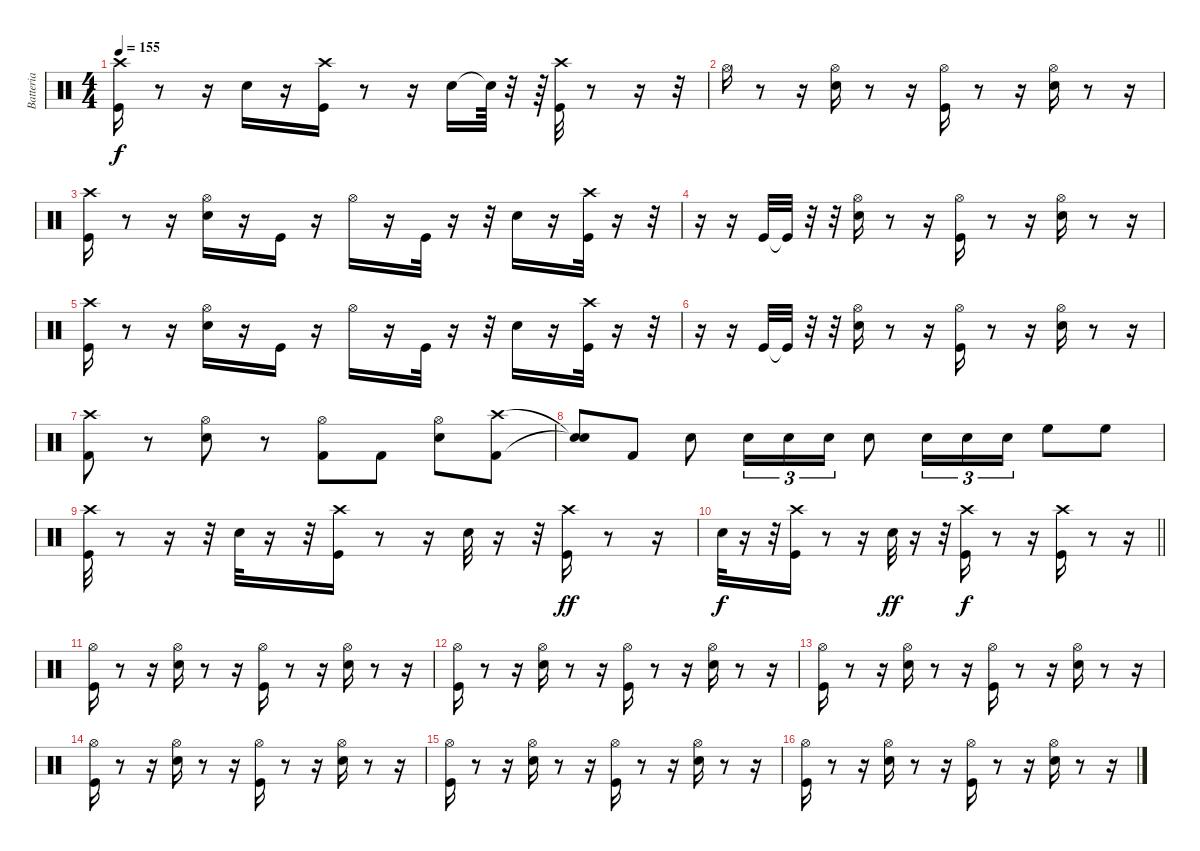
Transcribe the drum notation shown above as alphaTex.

\track ("Batteria" "Batteria") {instrument percussion bank 20}
\staff {score}
\articulation defaults
\ts (4 4)
\tempo 155
\clef neutral
\ks c
("Kick (hit)" "Crash high (hit)").16{dy f} r.8 r.16 "Snare (hit) 2".16 r.16 ("Kick (hit)" "Crash high (hit)").16 r.8 r.16 "Snare (hit) 2".16 "Snare (hit)"{t}.64 r.32 r.64 ("Kick (hit)" "Crash high (hit)").32 r.8 r.16 r.32 |
"Hi-Hat (open)".16 r.8 r.16 ("Hi-Hat (open)" "Snare (hit) 2").16 r.8 r.16 ("Hi-Hat (open)" "Kick (hit)").16 r.8 r.16 ("Hi-Hat (open)" "Snare (hit) 2").16 r.8 r.16 |
("Kick (hit)" "Crash high (hit)").16 r.8 r.16 ("Hi-Hat (open)" "Snare (hit) 2").16 r.16 "Kick (hit)".16 r.16 "Hi-Hat (open)".16 r.16 "Kick (hit)".32 r.16 r.32 "Snare (hit) 2".16 r.16 ("Kick (hit)" "Crash high (hit)").32 r.16 r.32 |
r.16 r.16 "Kick (hit)".32 "Kick (hit)"{t}.32 r.32 r.32 ("Hi-Hat (open)" "Snare (hit) 2").16 r.8 r.16 ("Hi-Hat (open)" "Kick (hit)").16 r.8 r.16 ("Hi-Hat (open)" "Snare (hit) 2").16 r.8 r.16 |
("Kick (hit)" "Crash high (hit)").16 r.8 r.16 ("Hi-Hat (open)" "Snare (hit) 2").16 r.16 "Kick (hit)".16 r.16 "Hi-Hat (open)".16 r.16 "Kick (hit)".32 r.16 r.32 "Snare (hit) 2".16 r.16 ("Kick (hit)" "Crash high (hit)").32 r.16 r.32 |
r.16 r.16 "Kick (hit)".32 "Kick (hit)"{t}.32 r.32 r.32 ("Hi-Hat (open)" "Snare (hit) 2").16 r.8 r.16 ("Hi-Hat (open)" "Kick (hit)").16 r.8 r.16 ("Hi-Hat (open)" "Snare (hit) 2").16 r.8 r.16 |
("Crash high (hit)" "Kick (hit) 2").8 r.8 ("Hi-Hat (open)" "Snare (hit) 2").8 r.8 ("Hi-Hat (open)" "Kick (hit) 2").8 "Kick (hit) 2".8 ("Hi-Hat (open)" "Snare (hit) 2").8 ("Crash high (hit)" "Kick (hit) 2").8 |
("Snare (hit)"{t} "Snare (hit)"{t}).8 "Kick (hit) 2".8 "Snare (hit) 2".8 "Snare (hit) 2".16{tu (3 2)} "Snare (hit) 2".16{tu (3 2)} "Snare (hit) 2".16{tu (3 2)} "Snare (hit) 2".8 "Snare (hit) 2".16{tu (3 2)} "Snare (hit) 2".16{tu (3 2)} "Snare (hit) 2".16{tu (3 2)} "High Floor Tom (hit)".8 "High Floor Tom (hit)".8 |
("Kick (hit)" "Crash high (hit)").32 r.8 r.16 r.32 "Snare (hit) 2".32 r.16 r.32 ("Kick (hit)" "Crash high (hit)").16 r.8 r.16 "Snare (hit) 2".32 r.16 r.32 ("Kick (hit)" "Crash high (hit)").16{dy ff} r.8 r.16 |
\barLineRight lightlight "Snare (hit) 2".32{dy f}
r.16 r.32 ("Kick (hit)" "Crash high (hit)").16 r.8 r.16 "Snare (hit) 2".32{dy ff} r.16 r.32 ("Kick (hit)" "Crash high (hit)").16{dy f} r.8 r.16 ("Kick (hit)" "Crash high (hit)").16 r.8 r.16 |
("Hi-Hat (open)" "Kick (hit)").16 r.8 r.16 ("Hi-Hat (open)" "Snare (hit) 2").16 r.8 r.16 ("Kick (hit)" "Hi-Hat (open)").16 r.8 r.16 ("Snare (hit) 2" "Hi-Hat (open)").16 r.8 r.16 |
("Hi-Hat (open)" "Kick (hit)").16 r.8 r.16 ("Hi-Hat (open)" "Snare (hit) 2").16 r.8 r.16 ("Kick (hit)" "Hi-Hat (open)").16 r.8 r.16 ("Snare (hit) 2" "Hi-Hat (open)").16 r.8 r.16 |
("Hi-Hat (open)" "Kick (hit)").16 r.8 r.16 ("Hi-Hat (open)" "Snare (hit) 2").16 r.8 r.16 ("Kick (hit)" "Hi-Hat (open)").16 r.8 r.16 ("Snare (hit) 2" "Hi-Hat (open)").16 r.8 r.16 |
("Hi-Hat (open)" "Kick (hit)").16 r.8 r.16 ("Hi-Hat (open)" "Snare (hit) 2").16 r.8 r.16 ("Kick (hit)" "Hi-Hat (open)").16 r.8 r.16 ("Snare (hit) 2" "Hi-Hat (open)").16 r.8 r.16 |
("Hi-Hat (open)" "Kick (hit)").16 r.8 r.16 ("Hi-Hat (open)" "Snare (hit) 2").16 r.8 r.16 ("Kick (hit)" "Hi-Hat (open)").16 r.8 r.16 ("Snare (hit) 2" "Hi-Hat (open)").16 r.8 r.16 |
("Hi-Hat (open)" "Kick (hit)").16 r.8 r.16 ("Hi-Hat (open)" "Snare (hit) 2").16 r.8 r.16 ("Kick (hit)" "Hi-Hat (open)").16 r.8 r.16 ("Snare (hit) 2" "Hi-Hat (open)").16 r.8 r.16
